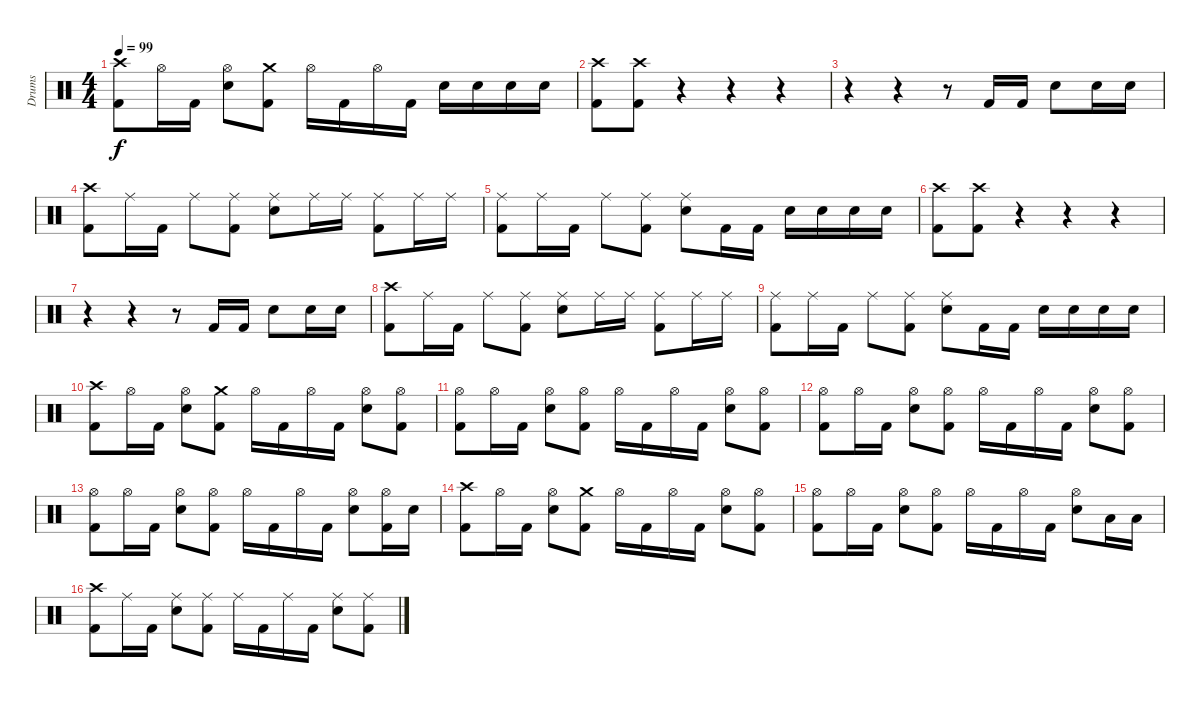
\track ("Drums" "Drums") {instrument percussion}
\staff {score}
\articulation defaults
\ts (4 4)
\tempo 99
\clef neutral
\ks c
("Crash high (hit)" "Kick (hit) 2").8{dy f} "Hi-Hat (open)".16 "Kick (hit) 2".16 ("Hi-Hat (open)" "Snare (hit) 2").8 ("Crash medium (hit)" "Kick (hit) 2").8 "Hi-Hat (open)".16 "Kick (hit) 2".16 "Hi-Hat (open)".16 "Kick (hit) 2".16 "Snare (hit) 2".16 "Snare (hit) 2".16 "Snare (hit) 2".16 "Snare (hit) 2".16 |
("Crash high (hit)" "Kick (hit) 2").8 ("Crash high (hit)" "Kick (hit) 2").8 r.4 r.4 r.4 |
r.4 r.4 r.8 "Kick (hit) 2".16 "Kick (hit) 2".16 "Snare (hit) 2".8 "Snare (hit) 2".16 "Snare (hit) 2".16 |
("Crash high (hit)" "Kick (hit) 2").8 "Ride (middle)".16 "Kick (hit) 2".16 "Ride (middle)".8 ("Ride (middle)" "Kick (hit) 2").8 ("Ride (middle)" "Snare (hit) 2").8 "Ride (middle)".16 "Ride (middle)".16 ("Ride (middle)" "Kick (hit) 2").8 "Ride (middle)".16 "Ride (middle)".16 |
("Ride (middle)" "Kick (hit) 2").8 "Ride (middle)".16 "Kick (hit) 2".16 "Ride (middle)".8 ("Ride (middle)" "Kick (hit) 2").8 ("Ride (middle)" "Snare (hit) 2").8 "Kick (hit) 2".16 "Kick (hit) 2".16 "Snare (hit) 2".16 "Snare (hit) 2".16 "Snare (hit) 2".16 "Snare (hit) 2".16 |
("Crash high (hit)" "Kick (hit) 2").8 ("Crash high (hit)" "Kick (hit) 2").8 r.4 r.4 r.4 |
r.4 r.4 r.8 "Kick (hit) 2".16 "Kick (hit) 2".16 "Snare (hit) 2".8 "Snare (hit) 2".16 "Snare (hit) 2".16 |
("Crash high (hit)" "Kick (hit) 2").8 "Ride (middle)".16 "Kick (hit) 2".16 "Ride (middle)".8 ("Ride (middle)" "Kick (hit) 2").8 ("Ride (middle)" "Snare (hit) 2").8 "Ride (middle)".16 "Ride (middle)".16 ("Ride (middle)" "Kick (hit) 2").8 "Ride (middle)".16 "Ride (middle)".16 |
("Ride (middle)" "Kick (hit) 2").8 "Ride (middle)".16 "Kick (hit) 2".16 "Ride (middle)".8 ("Ride (middle)" "Kick (hit) 2").8 ("Ride (middle)" "Snare (hit) 2").8 "Kick (hit) 2".16 "Kick (hit) 2".16 "Snare (hit) 2".16 "Snare (hit) 2".16 "Snare (hit) 2".16 "Snare (hit) 2".16 |
("Crash high (hit)" "Kick (hit) 2").8 "Hi-Hat (open)".16 "Kick (hit) 2".16 ("Hi-Hat (open)" "Snare (hit) 2").8 ("Crash medium (hit)" "Kick (hit) 2").8 "Hi-Hat (open)".16 "Kick (hit) 2".16 "Hi-Hat (open)".16 "Kick (hit) 2".16 ("Hi-Hat (open)" "Snare (hit) 2").8 ("Hi-Hat (open)" "Kick (hit) 2").8 |
("Hi-Hat (open)" "Kick (hit) 2").8 "Hi-Hat (open)".16 "Kick (hit) 2".16 ("Hi-Hat (open)" "Snare (hit) 2").8 ("Hi-Hat (open)" "Kick (hit) 2").8 "Hi-Hat (open)".16 "Kick (hit) 2".16 "Hi-Hat (open)".16 "Kick (hit) 2".16 ("Hi-Hat (open)" "Snare (hit) 2").8 ("Hi-Hat (open)" "Kick (hit) 2").8 |
("Hi-Hat (open)" "Kick (hit) 2").8 "Hi-Hat (open)".16 "Kick (hit) 2".16 ("Hi-Hat (open)" "Snare (hit) 2").8 ("Hi-Hat (open)" "Kick (hit) 2").8 "Hi-Hat (open)".16 "Kick (hit) 2".16 "Hi-Hat (open)".16 "Kick (hit) 2".16 ("Hi-Hat (open)" "Snare (hit) 2").8 ("Hi-Hat (open)" "Kick (hit) 2").8 |
("Hi-Hat (open)" "Kick (hit) 2").8 "Hi-Hat (open)".16 "Kick (hit) 2".16 ("Hi-Hat (open)" "Snare (hit) 2").8 ("Hi-Hat (open)" "Kick (hit) 2").8 "Hi-Hat (open)".16 "Kick (hit) 2".16 "Hi-Hat (open)".16 "Kick (hit) 2".16 ("Hi-Hat (open)" "Snare (hit) 2").8 ("Hi-Hat (open)" "Kick (hit) 2").16 "Snare (hit) 2".16 |
("Crash high (hit)" "Kick (hit) 2").8 "Hi-Hat (open)".16 "Kick (hit) 2".16 ("Hi-Hat (open)" "Snare (hit) 2").8 ("Crash medium (hit)" "Kick (hit) 2").8 "Hi-Hat (open)".16 "Kick (hit) 2".16 "Hi-Hat (open)".16 "Kick (hit) 2".16 ("Hi-Hat (open)" "Snare (hit) 2").8 ("Hi-Hat (open)" "Kick (hit) 2").8 |
("Hi-Hat (open)" "Kick (hit) 2").8 "Hi-Hat (open)".16 "Kick (hit) 2".16 ("Hi-Hat (open)" "Snare (hit) 2").8 ("Hi-Hat (open)" "Kick (hit) 2").8 "Hi-Hat (open)".16 "Kick (hit) 2".16 "Hi-Hat (open)".16 "Kick (hit) 2".16 ("Hi-Hat (open)" "Snare (hit) 2").8 "Low Tom (hit)".16 "Low Tom (hit)".16 |
("Crash high (hit)" "Kick (hit) 2").8 "Ride (middle)".16 "Kick (hit) 2".16 ("Ride (middle)" "Snare (hit) 2").8 ("Ride (middle)" "Kick (hit) 2").8 "Ride (middle)".16 "Kick (hit) 2".16 "Ride (middle)".16 "Kick (hit) 2".16 ("Ride (middle)" "Snare (hit) 2").8 ("Ride (middle)" "Kick (hit) 2").8
